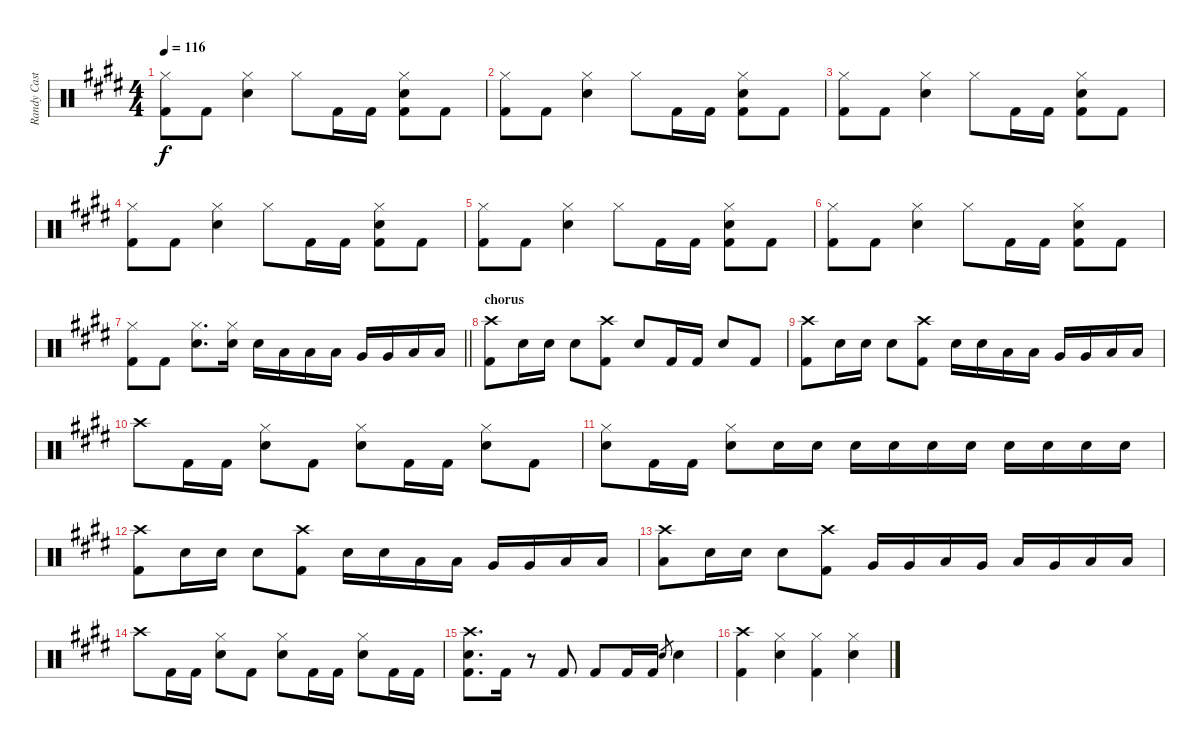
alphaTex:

\track ("Randy Castillo" "Randy Cast") {instrument percussion}
\staff {score}
\articulation defaults
\ts (4 4)
\tempo 116
\clef neutral
\ks e
("Hi-Hat (closed)" "Kick (hit) 2").8{dy f} "Kick (hit) 2".8 ("Hi-Hat (closed)" "Snare (hit) 2").4 "Hi-Hat (closed)".8 "Kick (hit) 2".16 "Kick (hit) 2".16 ("Hi-Hat (closed)" "Snare (hit) 2" "Kick (hit) 2").8 "Kick (hit) 2".8 |
("Hi-Hat (closed)" "Kick (hit) 2").8 "Kick (hit) 2".8 ("Hi-Hat (closed)" "Snare (hit) 2").4 "Hi-Hat (closed)".8 "Kick (hit) 2".16 "Kick (hit) 2".16 ("Hi-Hat (closed)" "Snare (hit) 2" "Kick (hit) 2").8 "Kick (hit) 2".8 |
("Hi-Hat (closed)" "Kick (hit) 2").8 "Kick (hit) 2".8 ("Hi-Hat (closed)" "Snare (hit) 2").4 "Hi-Hat (closed)".8 "Kick (hit) 2".16 "Kick (hit) 2".16 ("Hi-Hat (closed)" "Snare (hit) 2" "Kick (hit) 2").8 "Kick (hit) 2".8 |
("Hi-Hat (closed)" "Kick (hit) 2").8 "Kick (hit) 2".8 ("Hi-Hat (closed)" "Snare (hit) 2").4 "Hi-Hat (closed)".8 "Kick (hit) 2".16 "Kick (hit) 2".16 ("Hi-Hat (closed)" "Snare (hit) 2" "Kick (hit) 2").8 "Kick (hit) 2".8 |
("Hi-Hat (closed)" "Kick (hit) 2").8 "Kick (hit) 2".8 ("Hi-Hat (closed)" "Snare (hit) 2").4 "Hi-Hat (closed)".8 "Kick (hit) 2".16 "Kick (hit) 2".16 ("Hi-Hat (closed)" "Snare (hit) 2" "Kick (hit) 2").8 "Kick (hit) 2".8 |
("Hi-Hat (closed)" "Kick (hit) 2").8 "Kick (hit) 2".8 ("Hi-Hat (closed)" "Snare (hit) 2").4 "Hi-Hat (closed)".8 "Kick (hit) 2".16 "Kick (hit) 2".16 ("Hi-Hat (closed)" "Snare (hit) 2" "Kick (hit) 2").8 "Kick (hit) 2".8 |
\barLineRight lightlight
("Hi-Hat (closed)" "Kick (hit) 2").8 "Kick (hit) 2".8 ("Hi-Hat (closed)" "Snare (hit) 2").8{d} ("Hi-Hat (closed)" "Snare (hit) 2").16 "Snare (hit) 2".16 "Low Tom (hit)".16 "Low Tom (hit)".16 "Low Tom (hit)".16 "Very Low Tom (hit)".16 "Very Low Tom (hit)".16 "Low Tom (hit)".16 "Low Tom (hit)".16 |
\section ("" "chorus")
("Kick (hit) 2" "Crash high (hit)").8 "Snare (hit) 2".16 "Snare (hit) 2".16 "Snare (hit) 2".8 ("Kick (hit) 2" "Crash high (hit)").8 "Snare (hit) 2".8 "Kick (hit) 2".16 "Kick (hit) 2".16 "Snare (hit) 2".8 "Kick (hit) 2".8 |
("Kick (hit) 2" "Crash high (hit)").8 "Snare (hit) 2".16 "Snare (hit) 2".16 "Snare (hit) 2".8 ("Kick (hit) 2" "Crash high (hit)").8 "Snare (hit) 2".16 "Snare (hit) 2".16 "Low Tom (hit)".16 "Low Tom (hit)".16 "Very Low Tom (hit)".16 "Very Low Tom (hit)".16 "Low Floor Tom (hit)".16 "Low Floor Tom (hit)".16 |
"Crash high (hit)".8 "Kick (hit) 2".16 "Kick (hit) 2".16 ("Hi-Hat (closed)" "Snare (hit) 2").8 "Kick (hit) 2".8 ("Hi-Hat (closed)" "Snare (hit) 2").8 "Kick (hit) 2".16 "Kick (hit) 2".16 ("Hi-Hat (closed)" "Snare (hit) 2").8 "Kick (hit) 2".8 |
("Hi-Hat (closed)" "Snare (hit) 2").8 "Kick (hit) 2".16 "Kick (hit) 2".16 ("Hi-Hat (closed)" "Snare (hit) 2").8 "Snare (hit) 2".16 "Snare (hit) 2".16 "Snare (hit) 2".16 "Snare (hit) 2".16 "Snare (hit) 2".16 "Snare (hit) 2".16 "Snare (hit) 2".16 "Snare (hit) 2".16 "Snare (hit) 2".16 "Snare (hit) 2".16 |
("Kick (hit) 2" "Crash high (hit)").8 "Snare (hit) 2".16 "Snare (hit) 2".16 "Snare (hit) 2".8 ("Kick (hit) 2" "Crash high (hit)").8 "Snare (hit) 2".16 "Snare (hit) 2".16 "Low Tom (hit)".16 "Low Tom (hit)".16 "Very Low Tom (hit)".16 "Very Low Tom (hit)".16 "Low Floor Tom (hit)".16 "Low Floor Tom (hit)".16 |
("Low Tom (hit)" "Crash high (hit)").8 "Snare (hit) 2".16 "Snare (hit) 2".16 "Snare (hit) 2".8 ("Kick (hit) 2" "Crash high (hit)").8 "Very Low Tom (hit)".16 "Very Low Tom (hit)".16 "Low Tom (hit)".16 "Very Low Tom (hit)".16 "Low Tom (hit)".16 "Very Low Tom (hit)".16 "Low Floor Tom (hit)".16 "Low Floor Tom (hit)".16 |
"Crash high (hit)".8 "Kick (hit) 2".16 "Kick (hit) 2".16 ("Hi-Hat (closed)" "Snare (hit) 2").8 "Kick (hit) 2".8 ("Hi-Hat (closed)" "Snare (hit) 2").8 "Kick (hit) 2".16 "Kick (hit) 2".16 ("Hi-Hat (closed)" "Snare (hit) 2").8 "Kick (hit) 2".16 "Kick (hit) 2".16 |
("Snare (hit) 2" "Kick (hit) 2" "Crash high (hit)").8{d} "Kick (hit) 2".16 r.8 "Kick (hit) 2".8 "Kick (hit) 2".8 "Kick (hit) 2".16 "Kick (hit) 2".16 "Snare (hit) 2".8{gr} "Snare (hit) 2".4 |
("Kick (hit) 2" "Crash high (hit)").4 ("Hi-Hat (closed)" "Snare (hit) 2").4 ("Hi-Hat (closed)" "Kick (hit) 2").4 ("Hi-Hat (closed)" "Snare (hit) 2").4
